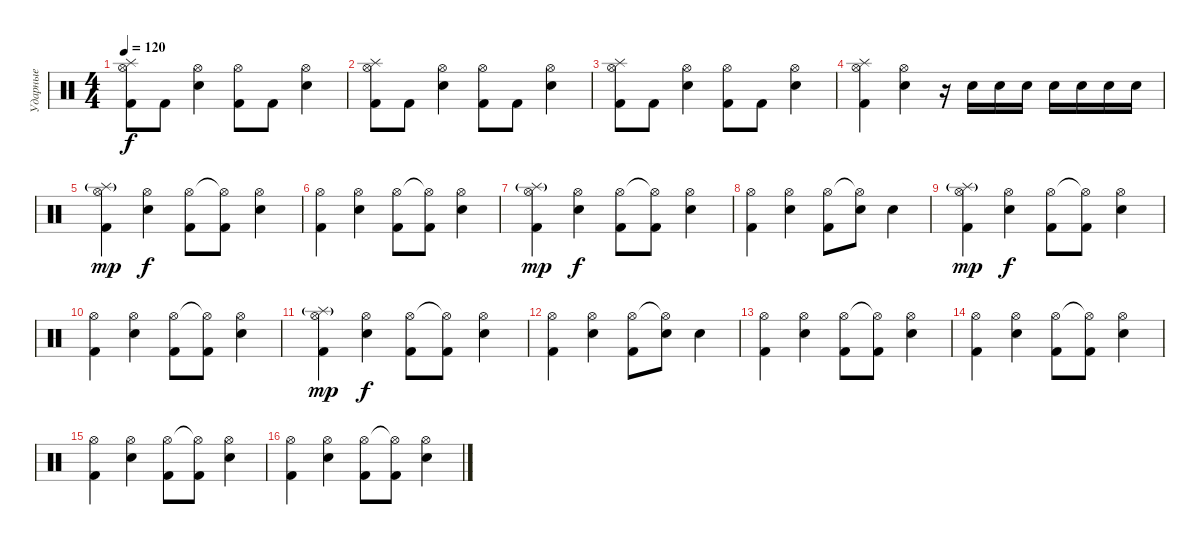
\track ("Ударные" "Ударные") {instrument percussion}
\staff {score}
\articulation defaults
\ts (4 4)
\tempo 120
\clef neutral
\ks c
("Kick (hit) 2" "Hi-Hat (open)" "Splash (hit)").8{dy f} "Kick (hit) 2".8 ("Electric Snare (hit)" "Hi-Hat (open)").4 ("Kick (hit) 2" "Hi-Hat (open)").8 "Kick (hit) 2".8 ("Electric Snare (hit)" "Hi-Hat (open)").4 |
("Kick (hit) 2" "Hi-Hat (open)" "Splash (hit)").8 "Kick (hit) 2".8 ("Electric Snare (hit)" "Hi-Hat (open)").4 ("Kick (hit) 2" "Hi-Hat (open)").8 "Kick (hit) 2".8 ("Electric Snare (hit)" "Hi-Hat (open)").4 |
("Kick (hit) 2" "Hi-Hat (open)" "Splash (hit)").8 "Kick (hit) 2".8 ("Electric Snare (hit)" "Hi-Hat (open)").4 ("Kick (hit) 2" "Hi-Hat (open)").8 "Kick (hit) 2".8 ("Electric Snare (hit)" "Hi-Hat (open)").4 |
("Kick (hit) 2" "Hi-Hat (open)" "Splash (hit)").4 ("Electric Snare (hit)" "Hi-Hat (open)").4 r.16 "Electric Snare (hit)".16 "Electric Snare (hit)".16 "Electric Snare (hit)".16 "Electric Snare (hit)".16 "Electric Snare (hit)".16 "Electric Snare (hit)".16 "Electric Snare (hit)".16 |
("Kick (hit) 2" "Hi-Hat (open)" "Splash (hit)"{g}).4{dy mp} ("Electric Snare (hit)" "Hi-Hat (open)").4{dy f} ("Kick (hit) 2" "Hi-Hat (open)").8 ("Kick (hit) 2" "Hi-Hat (open)"{t}).8 ("Electric Snare (hit)" "Hi-Hat (open)").4 |
("Kick (hit) 2" "Hi-Hat (open)").4 ("Electric Snare (hit)" "Hi-Hat (open)").4 ("Kick (hit) 2" "Hi-Hat (open)").8 ("Kick (hit) 2" "Hi-Hat (open)"{t}).8 ("Electric Snare (hit)" "Hi-Hat (open)").4 |
("Kick (hit) 2" "Hi-Hat (open)" "Splash (hit)"{g}).4{dy mp} ("Electric Snare (hit)" "Hi-Hat (open)").4{dy f} ("Kick (hit) 2" "Hi-Hat (open)").8 ("Kick (hit) 2" "Hi-Hat (open)"{t}).8 ("Electric Snare (hit)" "Hi-Hat (open)").4 |
("Kick (hit) 2" "Hi-Hat (open)").4 ("Electric Snare (hit)" "Hi-Hat (open)").4 ("Kick (hit) 2" "Hi-Hat (open)").8 ("Electric Snare (hit)" "Hi-Hat (open)"{t}).8 "Electric Snare (hit)".4 |
("Kick (hit) 2" "Hi-Hat (open)" "Splash (hit)"{g}).4{dy mp} ("Electric Snare (hit)" "Hi-Hat (open)").4{dy f} ("Kick (hit) 2" "Hi-Hat (open)").8 ("Kick (hit) 2" "Hi-Hat (open)"{t}).8 ("Electric Snare (hit)" "Hi-Hat (open)").4 |
("Kick (hit) 2" "Hi-Hat (open)").4 ("Electric Snare (hit)" "Hi-Hat (open)").4 ("Kick (hit) 2" "Hi-Hat (open)").8 ("Kick (hit) 2" "Hi-Hat (open)"{t}).8 ("Electric Snare (hit)" "Hi-Hat (open)").4 |
("Kick (hit) 2" "Hi-Hat (open)" "Splash (hit)"{g}).4{dy mp} ("Electric Snare (hit)" "Hi-Hat (open)").4{dy f} ("Kick (hit) 2" "Hi-Hat (open)").8 ("Kick (hit) 2" "Hi-Hat (open)"{t}).8 ("Electric Snare (hit)" "Hi-Hat (open)").4 |
("Kick (hit) 2" "Hi-Hat (open)").4 ("Electric Snare (hit)" "Hi-Hat (open)").4 ("Kick (hit) 2" "Hi-Hat (open)").8 ("Electric Snare (hit)" "Hi-Hat (open)"{t}).8 "Electric Snare (hit)".4 |
("Kick (hit) 2" "Hi-Hat (open)").4 ("Electric Snare (hit)" "Hi-Hat (open)").4 ("Kick (hit) 2" "Hi-Hat (open)").8 ("Kick (hit) 2" "Hi-Hat (open)"{t}).8 ("Electric Snare (hit)" "Hi-Hat (open)").4 |
("Kick (hit) 2" "Hi-Hat (open)").4 ("Electric Snare (hit)" "Hi-Hat (open)").4 ("Kick (hit) 2" "Hi-Hat (open)").8 ("Kick (hit) 2" "Hi-Hat (open)"{t}).8 ("Electric Snare (hit)" "Hi-Hat (open)").4 |
("Kick (hit) 2" "Hi-Hat (open)").4 ("Electric Snare (hit)" "Hi-Hat (open)").4 ("Kick (hit) 2" "Hi-Hat (open)").8 ("Kick (hit) 2" "Hi-Hat (open)"{t}).8 ("Electric Snare (hit)" "Hi-Hat (open)").4 |
("Kick (hit) 2" "Hi-Hat (open)").4 ("Electric Snare (hit)" "Hi-Hat (open)").4 ("Kick (hit) 2" "Hi-Hat (open)").8 ("Kick (hit) 2" "Hi-Hat (open)"{t}).8 ("Electric Snare (hit)" "Hi-Hat (open)").4
